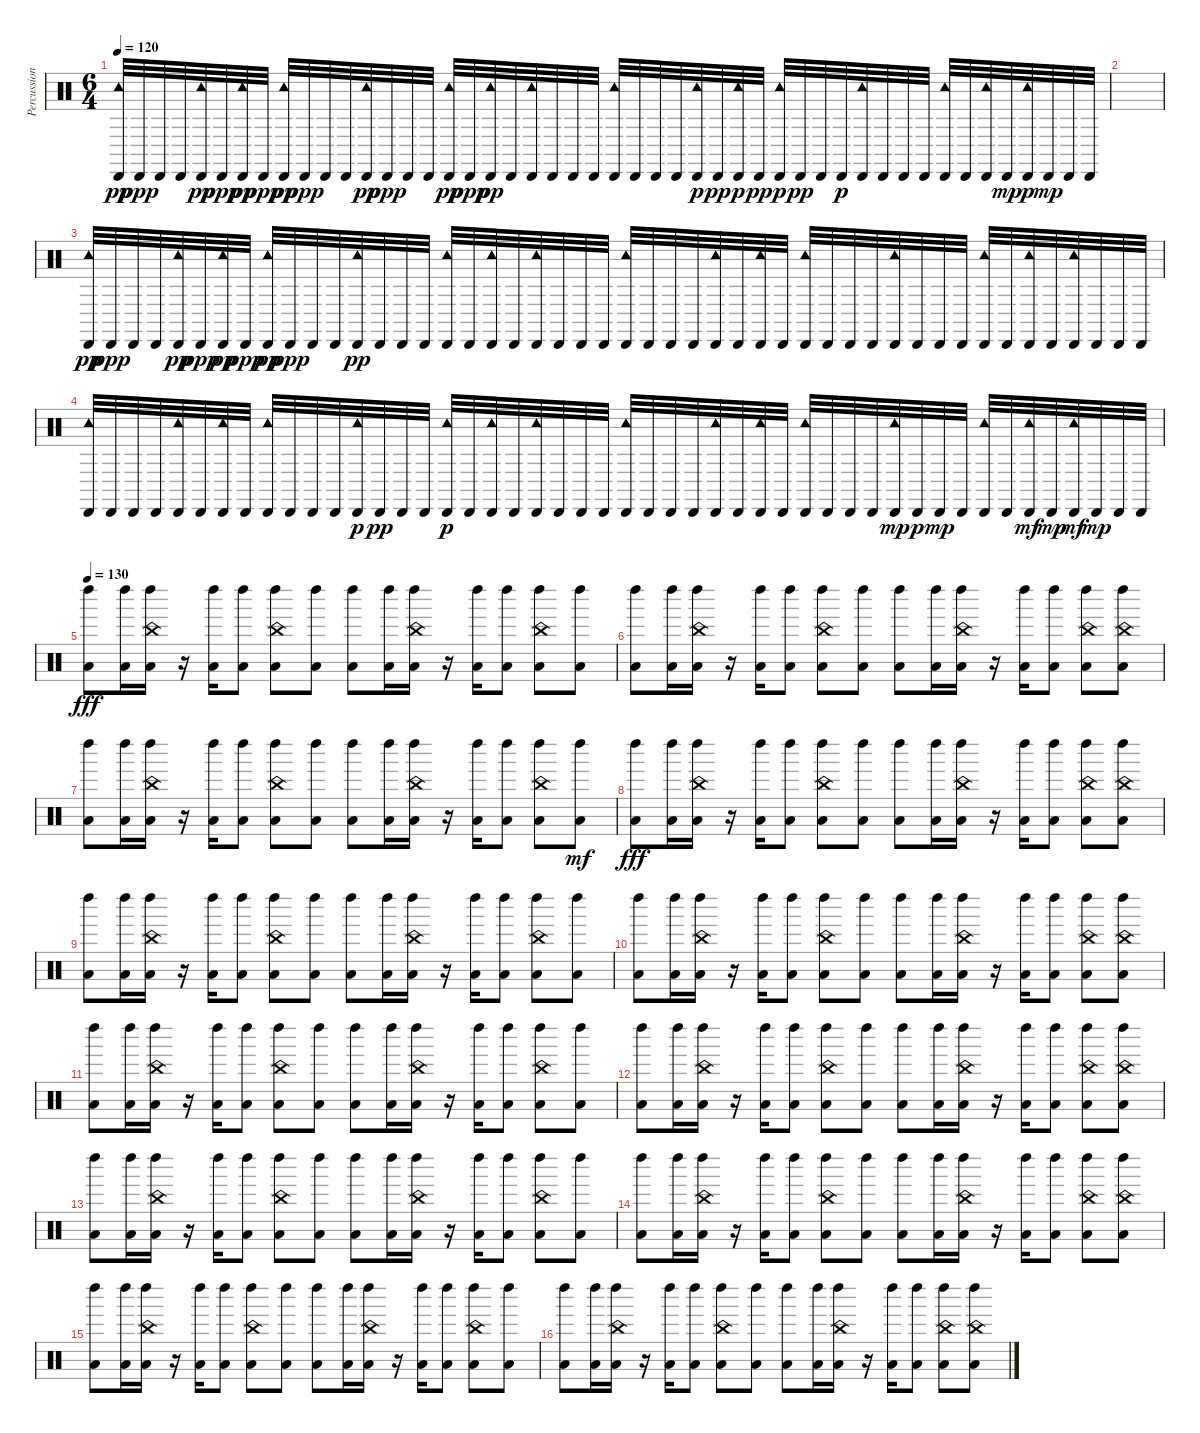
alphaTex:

\track ("Percussion" "Percussion") {instrument percussion}
\staff {score}
\articulation defaults
\ts (6 4)
\tempo 120
\clef neutral
\ks c
("Cabasa (hit)" "Tambourine (hit)").32{dy pp} "Cabasa (hit)".32{dy ppp} "Cabasa (hit)".32 "Cabasa (hit)".32 ("Cabasa (hit)" "Tambourine (hit)").32{dy pp} "Cabasa (hit)".32{dy ppp} ("Cabasa (hit)" "Tambourine (hit)").32{dy pp} "Cabasa (hit)".32{dy ppp} ("Cabasa (hit)" "Tambourine (hit)").32{dy pp} "Cabasa (hit)".32{dy ppp} "Cabasa (hit)".32 "Cabasa (hit)".32 ("Cabasa (hit)" "Tambourine (hit)").32{dy pp} "Cabasa (hit)".32{dy ppp} "Cabasa (hit)".32 "Cabasa (hit)".32 ("Cabasa (hit)" "Tambourine (hit)").32{dy pp} "Cabasa (hit)".32{dy ppp} ("Cabasa (hit)" "Tambourine (hit)").32{dy pp} "Cabasa (hit)".32 ("Cabasa (hit)" "Tambourine (hit)").32 "Cabasa (hit)".32 "Cabasa (hit)".32 "Cabasa (hit)".32 ("Cabasa (hit)" "Tambourine (hit)").32 "Cabasa (hit)".32 "Cabasa (hit)".32 "Cabasa (hit)".32 ("Cabasa (hit)" "Tambourine (hit)").32{dy p} "Cabasa (hit)".32{dy pp} ("Cabasa (hit)" "Tambourine (hit)").32{dy p} "Cabasa (hit)".32{dy pp} ("Cabasa (hit)" "Tambourine (hit)").32{dy p} "Cabasa (hit)".32{dy pp} "Cabasa (hit)".32 "Cabasa (hit)".32{dy p} ("Cabasa (hit)" "Tambourine (hit)").32 "Cabasa (hit)".32 "Cabasa (hit)".32 "Cabasa (hit)".32 ("Cabasa (hit)" "Tambourine (hit)").32 "Cabasa (hit)".32 ("Cabasa (hit)" "Tambourine (hit)").32 "Cabasa (hit)".32{dy mp} ("Cabasa (hit)" "Tambourine (hit)").32{dy p} "Cabasa (hit)".32{dy mp} "Cabasa (hit)".32 "Cabasa (hit)".32 |
|
("Cabasa (hit)" "Tambourine (hit)").32{dy pp} "Cabasa (hit)".32{dy ppp} "Cabasa (hit)".32 "Cabasa (hit)".32 ("Cabasa (hit)" "Tambourine (hit)").32{dy pp} "Cabasa (hit)".32{dy ppp} ("Cabasa (hit)" "Tambourine (hit)").32{dy pp} "Cabasa (hit)".32{dy ppp} ("Cabasa (hit)" "Tambourine (hit)").32{dy pp} "Cabasa (hit)".32{dy ppp} "Cabasa (hit)".32 "Cabasa (hit)".32 ("Cabasa (hit)" "Tambourine (hit)").32{dy pp} "Cabasa (hit)".32 "Cabasa (hit)".32 "Cabasa (hit)".32 ("Cabasa (hit)" "Tambourine (hit)").32 "Cabasa (hit)".32 ("Cabasa (hit)" "Tambourine (hit)").32 "Cabasa (hit)".32 ("Cabasa (hit)" "Tambourine (hit)").32 "Cabasa (hit)".32 "Cabasa (hit)".32 "Cabasa (hit)".32 ("Cabasa (hit)" "Tambourine (hit)").32 "Cabasa (hit)".32 "Cabasa (hit)".32 "Cabasa (hit)".32 ("Cabasa (hit)" "Tambourine (hit)").32 "Cabasa (hit)".32 ("Cabasa (hit)" "Tambourine (hit)").32 "Cabasa (hit)".32 ("Cabasa (hit)" "Tambourine (hit)").32 "Cabasa (hit)".32 "Cabasa (hit)".32 "Cabasa (hit)".32 ("Cabasa (hit)" "Tambourine (hit)").32 "Cabasa (hit)".32 "Cabasa (hit)".32 "Cabasa (hit)".32 ("Cabasa (hit)" "Tambourine (hit)").32 "Cabasa (hit)".32 ("Cabasa (hit)" "Tambourine (hit)").32 "Cabasa (hit)".32 ("Cabasa (hit)" "Tambourine (hit)").32 "Cabasa (hit)".32 "Cabasa (hit)".32 "Cabasa (hit)".32 |
("Cabasa (hit)" "Tambourine (hit)").32 "Cabasa (hit)".32 "Cabasa (hit)".32 "Cabasa (hit)".32 ("Cabasa (hit)" "Tambourine (hit)").32 "Cabasa (hit)".32 ("Cabasa (hit)" "Tambourine (hit)").32 "Cabasa (hit)".32 ("Cabasa (hit)" "Tambourine (hit)").32 "Cabasa (hit)".32 "Cabasa (hit)".32 "Cabasa (hit)".32 ("Cabasa (hit)" "Tambourine (hit)").32{dy p} "Cabasa (hit)".32{dy pp} "Cabasa (hit)".32 "Cabasa (hit)".32 ("Cabasa (hit)" "Tambourine (hit)").32{dy p} "Cabasa (hit)".32 ("Cabasa (hit)" "Tambourine (hit)").32 "Cabasa (hit)".32 ("Cabasa (hit)" "Tambourine (hit)").32 "Cabasa (hit)".32 "Cabasa (hit)".32 "Cabasa (hit)".32 ("Cabasa (hit)" "Tambourine (hit)").32 "Cabasa (hit)".32 "Cabasa (hit)".32 "Cabasa (hit)".32 ("Cabasa (hit)" "Tambourine (hit)").32 "Cabasa (hit)".32 ("Cabasa (hit)" "Tambourine (hit)").32 "Cabasa (hit)".32 ("Cabasa (hit)" "Tambourine (hit)").32 "Cabasa (hit)".32 "Cabasa (hit)".32 "Cabasa (hit)".32 ("Cabasa (hit)" "Tambourine (hit)").32{dy mp} "Cabasa (hit)".32{dy p} "Cabasa (hit)".32{dy mp} "Cabasa (hit)".32 ("Cabasa (hit)" "Tambourine (hit)").32 "Cabasa (hit)".32 ("Cabasa (hit)" "Tambourine (hit)").32{dy mf} "Cabasa (hit)".32{dy mp} ("Cabasa (hit)" "Tambourine (hit)").32{dy mf} "Cabasa (hit)".32{dy mp} "Cabasa (hit)".32 "Cabasa (hit)".32 |
\tempo 130
("Left Maraca (hit)" "Low Floor Tom (hit)").8{dy fff volume 16} ("Left Maraca (hit)" "Low Tom (hit)").16 ("Left Maraca (hit)" "China (hit)" "Low Tom (hit)").16 r.16 ("Left Maraca (hit)" "Low Floor Tom (hit)").16 ("Left Maraca (hit)" "Low Floor Tom (hit)").8 ("Left Maraca (hit)" "China (hit)" "Low Tom (hit)").8 ("Left Maraca (hit)" "Low Tom (hit)").8 ("Left Maraca (hit)" "Low Floor Tom (hit)").8 ("Left Maraca (hit)" "Low Tom (hit)").16 ("Left Maraca (hit)" "China (hit)" "Low Tom (hit)").16 r.16 ("Left Maraca (hit)" "Low Floor Tom (hit)").16 ("Left Maraca (hit)" "Low Floor Tom (hit)").8 ("Left Maraca (hit)" "China (hit)" "Low Tom (hit)").8 ("Left Maraca (hit)" "Low Tom (hit)").8 |
("Left Maraca (hit)" "Low Floor Tom (hit)").8 ("Left Maraca (hit)" "Low Tom (hit)").16 ("Left Maraca (hit)" "China (hit)" "Low Tom (hit)").16 r.16 ("Left Maraca (hit)" "Low Floor Tom (hit)").16 ("Left Maraca (hit)" "Low Floor Tom (hit)").8 ("Left Maraca (hit)" "China (hit)" "Low Tom (hit)").8 ("Left Maraca (hit)" "Low Tom (hit)").8 ("Left Maraca (hit)" "Low Floor Tom (hit)").8 ("Left Maraca (hit)" "Low Tom (hit)").16 ("Left Maraca (hit)" "China (hit)" "Low Tom (hit)").16 r.16 ("Left Maraca (hit)" "Low Floor Tom (hit)").16 ("Left Maraca (hit)" "Low Floor Tom (hit)").8 ("Left Maraca (hit)" "China (hit)" "Low Tom (hit)").8 ("Left Maraca (hit)" "China (hit)" "Low Tom (hit)").8 |
("Left Maraca (hit)" "Low Floor Tom (hit)").8 ("Left Maraca (hit)" "Low Tom (hit)").16 ("Left Maraca (hit)" "China (hit)" "Low Tom (hit)").16 r.16 ("Left Maraca (hit)" "Low Floor Tom (hit)").16 ("Left Maraca (hit)" "Low Floor Tom (hit)").8 ("Left Maraca (hit)" "China (hit)" "Low Tom (hit)").8 ("Left Maraca (hit)" "Low Tom (hit)").8 ("Left Maraca (hit)" "Low Floor Tom (hit)").8 ("Left Maraca (hit)" "Low Tom (hit)").16 ("Left Maraca (hit)" "China (hit)" "Low Tom (hit)").16 r.16 ("Left Maraca (hit)" "Low Floor Tom (hit)").16 ("Left Maraca (hit)" "Low Floor Tom (hit)").8 ("Left Maraca (hit)" "China (hit)" "Low Tom (hit)").8 ("Left Maraca (hit)" "Low Tom (hit)").8{dy mf} |
("Left Maraca (hit)" "Low Floor Tom (hit)").8{dy fff} ("Left Maraca (hit)" "Low Tom (hit)").16 ("Left Maraca (hit)" "China (hit)" "Low Tom (hit)").16 r.16 ("Left Maraca (hit)" "Low Floor Tom (hit)").16 ("Left Maraca (hit)" "Low Floor Tom (hit)").8 ("Left Maraca (hit)" "China (hit)" "Low Tom (hit)").8 ("Left Maraca (hit)" "Low Tom (hit)").8 ("Left Maraca (hit)" "Low Floor Tom (hit)").8 ("Left Maraca (hit)" "Low Tom (hit)").16 ("Left Maraca (hit)" "China (hit)" "Low Tom (hit)").16 r.16 ("Left Maraca (hit)" "Low Floor Tom (hit)").16 ("Left Maraca (hit)" "Low Floor Tom (hit)").8 ("Left Maraca (hit)" "China (hit)" "Low Tom (hit)").8 ("Left Maraca (hit)" "China (hit)" "Low Tom (hit)").8 |
("Left Maraca (hit)" "Low Floor Tom (hit)").8 ("Left Maraca (hit)" "Low Tom (hit)").16 ("Left Maraca (hit)" "China (hit)" "Low Tom (hit)").16 r.16 ("Left Maraca (hit)" "Low Floor Tom (hit)").16 ("Left Maraca (hit)" "Low Floor Tom (hit)").8 ("Left Maraca (hit)" "China (hit)" "Low Tom (hit)").8 ("Left Maraca (hit)" "Low Tom (hit)").8 ("Left Maraca (hit)" "Low Floor Tom (hit)").8 ("Left Maraca (hit)" "Low Tom (hit)").16 ("Left Maraca (hit)" "China (hit)" "Low Tom (hit)").16 r.16 ("Left Maraca (hit)" "Low Floor Tom (hit)").16 ("Left Maraca (hit)" "Low Floor Tom (hit)").8 ("Left Maraca (hit)" "China (hit)" "Low Tom (hit)").8 ("Left Maraca (hit)" "Low Tom (hit)").8 |
("Left Maraca (hit)" "Low Floor Tom (hit)").8 ("Left Maraca (hit)" "Low Tom (hit)").16 ("Left Maraca (hit)" "China (hit)" "Low Tom (hit)").16 r.16 ("Left Maraca (hit)" "Low Floor Tom (hit)").16 ("Left Maraca (hit)" "Low Floor Tom (hit)").8 ("Left Maraca (hit)" "China (hit)" "Low Tom (hit)").8 ("Left Maraca (hit)" "Low Tom (hit)").8 ("Left Maraca (hit)" "Low Floor Tom (hit)").8 ("Left Maraca (hit)" "Low Tom (hit)").16 ("Left Maraca (hit)" "China (hit)" "Low Tom (hit)").16 r.16 ("Left Maraca (hit)" "Low Floor Tom (hit)").16 ("Left Maraca (hit)" "Low Floor Tom (hit)").8 ("Left Maraca (hit)" "China (hit)" "Low Tom (hit)").8 ("Left Maraca (hit)" "China (hit)" "Low Tom (hit)").8 |
("Left Maraca (hit)" "Low Floor Tom (hit)").8 ("Left Maraca (hit)" "Low Tom (hit)").16 ("Left Maraca (hit)" "China (hit)" "Low Tom (hit)").16 r.16 ("Left Maraca (hit)" "Low Floor Tom (hit)").16 ("Left Maraca (hit)" "Low Floor Tom (hit)").8 ("Left Maraca (hit)" "China (hit)" "Low Tom (hit)").8 ("Left Maraca (hit)" "Low Tom (hit)").8 ("Left Maraca (hit)" "Low Floor Tom (hit)").8 ("Left Maraca (hit)" "Low Tom (hit)").16 ("Left Maraca (hit)" "China (hit)" "Low Tom (hit)").16 r.16 ("Left Maraca (hit)" "Low Floor Tom (hit)").16 ("Left Maraca (hit)" "Low Floor Tom (hit)").8 ("Left Maraca (hit)" "China (hit)" "Low Tom (hit)").8 ("Left Maraca (hit)" "Low Tom (hit)").8 |
("Left Maraca (hit)" "Low Floor Tom (hit)").8 ("Left Maraca (hit)" "Low Tom (hit)").16 ("Left Maraca (hit)" "China (hit)" "Low Tom (hit)").16 r.16 ("Left Maraca (hit)" "Low Floor Tom (hit)").16 ("Left Maraca (hit)" "Low Floor Tom (hit)").8 ("Left Maraca (hit)" "China (hit)" "Low Tom (hit)").8 ("Left Maraca (hit)" "Low Tom (hit)").8 ("Left Maraca (hit)" "Low Floor Tom (hit)").8 ("Left Maraca (hit)" "Low Tom (hit)").16 ("Left Maraca (hit)" "China (hit)" "Low Tom (hit)").16 r.16 ("Left Maraca (hit)" "Low Floor Tom (hit)").16 ("Left Maraca (hit)" "Low Floor Tom (hit)").8 ("Left Maraca (hit)" "China (hit)" "Low Tom (hit)").8 ("Left Maraca (hit)" "China (hit)" "Low Tom (hit)").8 |
("Left Maraca (hit)" "Low Floor Tom (hit)").8 ("Left Maraca (hit)" "Low Tom (hit)").16 ("Left Maraca (hit)" "China (hit)" "Low Tom (hit)").16 r.16 ("Left Maraca (hit)" "Low Floor Tom (hit)").16 ("Left Maraca (hit)" "Low Floor Tom (hit)").8 ("Left Maraca (hit)" "China (hit)" "Low Tom (hit)").8 ("Left Maraca (hit)" "Low Tom (hit)").8 ("Left Maraca (hit)" "Low Floor Tom (hit)").8 ("Left Maraca (hit)" "Low Tom (hit)").16 ("Left Maraca (hit)" "China (hit)" "Low Tom (hit)").16 r.16 ("Left Maraca (hit)" "Low Floor Tom (hit)").16 ("Left Maraca (hit)" "Low Floor Tom (hit)").8 ("Left Maraca (hit)" "China (hit)" "Low Tom (hit)").8 ("Left Maraca (hit)" "Low Tom (hit)").8 |
("Left Maraca (hit)" "Low Floor Tom (hit)").8 ("Left Maraca (hit)" "Low Tom (hit)").16 ("Left Maraca (hit)" "China (hit)" "Low Tom (hit)").16 r.16 ("Left Maraca (hit)" "Low Floor Tom (hit)").16 ("Left Maraca (hit)" "Low Floor Tom (hit)").8 ("Left Maraca (hit)" "China (hit)" "Low Tom (hit)").8 ("Left Maraca (hit)" "Low Tom (hit)").8 ("Left Maraca (hit)" "Low Floor Tom (hit)").8 ("Left Maraca (hit)" "Low Tom (hit)").16 ("Left Maraca (hit)" "China (hit)" "Low Tom (hit)").16 r.16 ("Left Maraca (hit)" "Low Floor Tom (hit)").16 ("Left Maraca (hit)" "Low Floor Tom (hit)").8 ("Left Maraca (hit)" "China (hit)" "Low Tom (hit)").8 ("Left Maraca (hit)" "China (hit)" "Low Tom (hit)").8 |
("Left Maraca (hit)" "Low Floor Tom (hit)").8 ("Left Maraca (hit)" "Low Tom (hit)").16 ("Left Maraca (hit)" "China (hit)" "Low Tom (hit)").16 r.16 ("Left Maraca (hit)" "Low Floor Tom (hit)").16 ("Left Maraca (hit)" "Low Floor Tom (hit)").8 ("Left Maraca (hit)" "China (hit)" "Low Tom (hit)").8 ("Left Maraca (hit)" "Low Tom (hit)").8 ("Left Maraca (hit)" "Low Floor Tom (hit)").8 ("Left Maraca (hit)" "Low Tom (hit)").16 ("Left Maraca (hit)" "China (hit)" "Low Tom (hit)").16 r.16 ("Left Maraca (hit)" "Low Floor Tom (hit)").16 ("Left Maraca (hit)" "Low Floor Tom (hit)").8 ("Left Maraca (hit)" "China (hit)" "Low Tom (hit)").8 ("Left Maraca (hit)" "Low Tom (hit)").8 |
("Left Maraca (hit)" "Low Floor Tom (hit)").8 ("Left Maraca (hit)" "Low Tom (hit)").16 ("Left Maraca (hit)" "China (hit)" "Low Tom (hit)").16 r.16 ("Left Maraca (hit)" "Low Floor Tom (hit)").16 ("Left Maraca (hit)" "Low Floor Tom (hit)").8 ("Left Maraca (hit)" "China (hit)" "Low Tom (hit)").8 ("Left Maraca (hit)" "Low Tom (hit)").8 ("Left Maraca (hit)" "Low Floor Tom (hit)").8 ("Left Maraca (hit)" "Low Tom (hit)").16 ("Left Maraca (hit)" "China (hit)" "Low Tom (hit)").16 r.16 ("Left Maraca (hit)" "Low Floor Tom (hit)").16 ("Left Maraca (hit)" "Low Floor Tom (hit)").8 ("Left Maraca (hit)" "China (hit)" "Low Tom (hit)").8 ("Left Maraca (hit)" "China (hit)" "Low Tom (hit)").8
